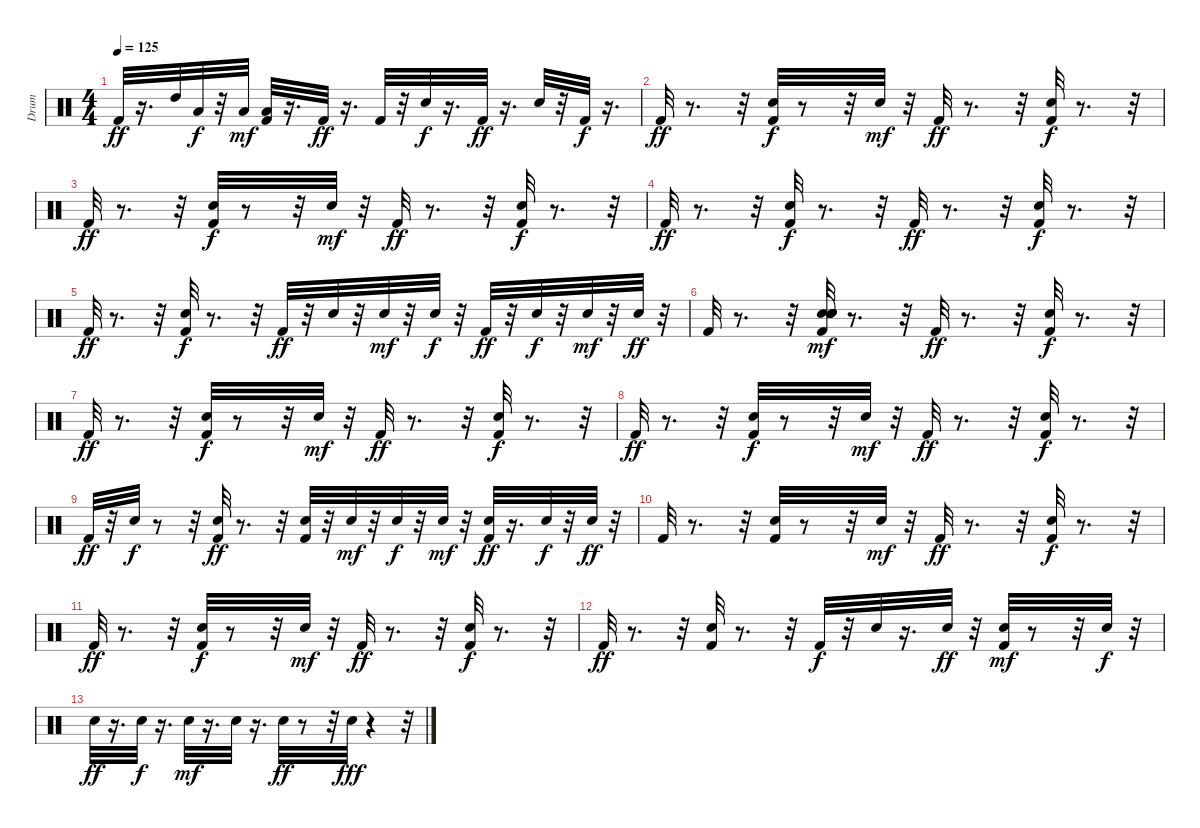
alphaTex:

\track ("Drum" "Drum") {instrument percussion}
\staff {score}
\articulation defaults
\ts (4 4)
\tempo 125
\clef neutral
\ks c "Kick (hit) 2".32{dy ff}
r.16{d} "High Tom (hit)".32 "Low Tom (hit)".32{dy f} r.32 "Low Floor Tom (hit)".32{dy mf} ("Low Floor Tom (hit)" "Kick (hit) 2").32 r.16{d} "Kick (hit) 2".32{dy ff} r.16{d} "Kick (hit) 2".32 r.32 "Snare (hit) 2".32{dy f} r.16{d} "Kick (hit) 2".32{dy ff} r.16{d} "Snare (hit) 2".32 r.32 "Kick (hit) 2".32{dy f} r.16{d} |
"Kick (hit) 2".32{dy ff} r.8{d} r.32 ("Snare (hit) 2" "Kick (hit) 2").32{dy f} r.8 r.32 "Snare (hit) 2".32{dy mf} r.32 "Kick (hit) 2".32{dy ff} r.8{d} r.32 ("Snare (hit) 2" "Kick (hit) 2").32{dy f} r.8{d} r.32 |
"Kick (hit) 2".32{dy ff} r.8{d} r.32 ("Snare (hit) 2" "Kick (hit) 2").32{dy f} r.8 r.32 "Snare (hit) 2".32{dy mf} r.32 "Kick (hit) 2".32{dy ff} r.8{d} r.32 ("Snare (hit) 2" "Kick (hit) 2").32{dy f} r.8{d} r.32 |
"Kick (hit) 2".32{dy ff} r.8{d} r.32 ("Snare (hit) 2" "Kick (hit) 2").32{dy f} r.8{d} r.32 "Kick (hit) 2".32{dy ff} r.8{d} r.32 ("Snare (hit) 2" "Kick (hit) 2").32{dy f} r.8{d} r.32 |
"Kick (hit) 2".32{dy ff} r.8{d} r.32 ("Snare (hit) 2" "Kick (hit) 2").32{dy f} r.8{d} r.32 "Kick (hit) 2".32{dy ff} r.32 "Snare (hit) 2".32 r.32 "Snare (hit) 2".32{dy mf} r.32 "Snare (hit) 2".32{dy f} r.32 "Kick (hit) 2".32{dy ff} r.32 "Snare (hit) 2".32{dy f} r.32 "Snare (hit) 2".32{dy mf} r.32 "Snare (hit) 2".32{dy ff} r.32 |
"Kick (hit) 2".32 r.8{d} r.32 ("Hand Clap (hit)" "Hand Clap (hit)" "Hand Clap (hit)" "Hand Clap (hit)" "Snare (hit) 2" "Kick (hit) 2").32{dy mf balance 16} r.8{d} r.32 "Kick (hit) 2".32{dy ff} r.8{d} r.32 ("Snare (hit) 2" "Kick (hit) 2").32{dy f} r.8{d} r.32 |
"Kick (hit) 2".32{dy ff} r.8{d} r.32 ("Snare (hit) 2" "Kick (hit) 2").32{dy f} r.8 r.32 "Snare (hit) 2".32{dy mf} r.32 "Kick (hit) 2".32{dy ff} r.8{d} r.32 ("Snare (hit) 2" "Kick (hit) 2").32{dy f} r.8{d} r.32 |
"Kick (hit) 2".32{dy ff} r.8{d} r.32 ("Snare (hit) 2" "Kick (hit) 2").32{dy f} r.8 r.32 "Snare (hit) 2".32{dy mf} r.32 "Kick (hit) 2".32{dy ff} r.8{d} r.32 ("Snare (hit) 2" "Kick (hit) 2").32{dy f} r.8{d} r.32 |
"Kick (hit) 2".32{dy ff} r.32 "Snare (hit) 2".32{dy f} r.8 r.32 ("Snare (hit) 2" "Kick (hit) 2").32{dy ff} r.8{d} r.32 ("Snare (hit) 2" "Kick (hit) 2").32 r.32 "Snare (hit) 2".32{dy mf} r.32 "Snare (hit) 2".32{dy f} r.32 "Snare (hit) 2".32{dy mf} r.32 ("Snare (hit) 2" "Kick (hit) 2").32{dy ff} r.16{d} "Snare (hit) 2".32{dy f} r.32 "Snare (hit) 2".32{dy ff} r.32 |
"Kick (hit) 2".32 r.8{d} r.32 ("Snare (hit) 2" "Kick (hit) 2").32 r.8 r.32 "Snare (hit) 2".32{dy mf} r.32 "Kick (hit) 2".32{dy ff} r.8{d} r.32 ("Snare (hit) 2" "Kick (hit) 2").32{dy f} r.8{d} r.32 |
"Kick (hit) 2".32{dy ff} r.8{d} r.32 ("Snare (hit) 2" "Kick (hit) 2").32{dy f} r.8 r.32 "Snare (hit) 2".32{dy mf} r.32 "Kick (hit) 2".32{dy ff} r.8{d} r.32 ("Snare (hit) 2" "Kick (hit) 2").32{dy f} r.8{d} r.32 |
"Kick (hit) 2".32{dy ff} r.8{d} r.32 ("Snare (hit) 2" "Kick (hit) 2").32 r.8{d} r.32 "Kick (hit) 2".32{dy f} r.32 "Snare (hit) 2".32 r.16{d} "Snare (hit) 2".32{dy ff} r.32 ("Snare (hit) 2" "Kick (hit) 2").32{dy mf} r.8 r.32 "Snare (hit) 2".32{dy f} r.32 |
"Snare (hit) 2".32{dy ff} r.16{d} "Snare (hit) 2".32{dy f} r.16{d} "Snare (hit) 2".32{dy mf} r.16{d} "Snare (hit) 2".32 r.16{d} "Snare (hit) 2".32{dy ff} r.8 r.32 "Snare (hit) 2".32{dy fff} r.4 r.32
